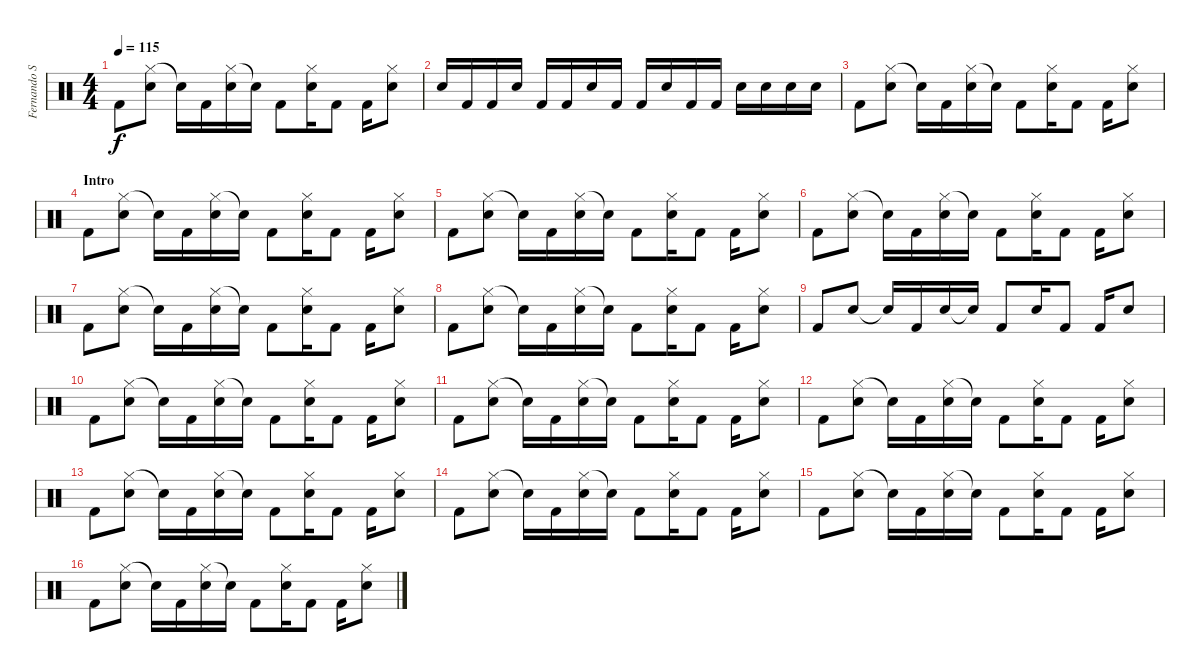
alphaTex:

\track ("Fernando Scarcella" "Fernando S") {instrument percussion}
\staff {score}
\articulation defaults
\ts (4 4)
\tempo 115
\clef neutral
\ks c "Kick (hit) 2".8{dy f}
("Hi-Hat (closed)" "Snare (hit) 2").8 "Snare (hit)"{t}.16 "Kick (hit) 2".16 ("Hi-Hat (closed)" "Snare (hit) 2").16 "Snare (hit)"{t}.16 "Kick (hit) 2".8 ("Hi-Hat (closed)" "Snare (hit) 2").16 "Kick (hit) 2".8 "Kick (hit) 2".16 ("Hi-Hat (closed)" "Snare (hit) 2").8 |
"Snare (hit) 2".16 "Kick (hit) 2".16 "Kick (hit) 2".16 "Snare (hit) 2".16 "Kick (hit) 2".16 "Kick (hit) 2".16 "Snare (hit) 2".16 "Kick (hit) 2".16 "Kick (hit) 2".16 "Snare (hit) 2".16 "Kick (hit) 2".16 "Kick (hit) 2".16 "Snare (hit) 2".16 "Snare (hit) 2".16 "Snare (hit) 2".16 "Snare (hit) 2".16 |
"Kick (hit) 2".8 ("Hi-Hat (closed)" "Snare (hit) 2").8 "Snare (hit)"{t}.16 "Kick (hit) 2".16 ("Hi-Hat (closed)" "Snare (hit) 2").16 "Snare (hit)"{t}.16 "Kick (hit) 2".8 ("Hi-Hat (closed)" "Snare (hit) 2").16 "Kick (hit) 2".8 "Kick (hit) 2".16 ("Hi-Hat (closed)" "Snare (hit) 2").8 |
\section ("" "Intro")
"Kick (hit) 2".8 ("Hi-Hat (closed)" "Snare (hit) 2").8 "Snare (hit)"{t}.16 "Kick (hit) 2".16 ("Hi-Hat (closed)" "Snare (hit) 2").16 "Snare (hit)"{t}.16 "Kick (hit) 2".8 ("Hi-Hat (closed)" "Snare (hit) 2").16 "Kick (hit) 2".8 "Kick (hit) 2".16 ("Hi-Hat (closed)" "Snare (hit) 2").8 |
"Kick (hit) 2".8 ("Hi-Hat (closed)" "Snare (hit) 2").8 "Snare (hit)"{t}.16 "Kick (hit) 2".16 ("Hi-Hat (closed)" "Snare (hit) 2").16 "Snare (hit)"{t}.16 "Kick (hit) 2".8 ("Hi-Hat (closed)" "Snare (hit) 2").16 "Kick (hit) 2".8 "Kick (hit) 2".16 ("Hi-Hat (closed)" "Snare (hit) 2").8 |
"Kick (hit) 2".8 ("Hi-Hat (closed)" "Snare (hit) 2").8 "Snare (hit)"{t}.16 "Kick (hit) 2".16 ("Hi-Hat (closed)" "Snare (hit) 2").16 "Snare (hit)"{t}.16 "Kick (hit) 2".8 ("Hi-Hat (closed)" "Snare (hit) 2").16 "Kick (hit) 2".8 "Kick (hit) 2".16 ("Hi-Hat (closed)" "Snare (hit) 2").8 |
"Kick (hit) 2".8 ("Hi-Hat (closed)" "Snare (hit) 2").8 "Snare (hit)"{t}.16 "Kick (hit) 2".16 ("Hi-Hat (closed)" "Snare (hit) 2").16 "Snare (hit)"{t}.16 "Kick (hit) 2".8 ("Hi-Hat (closed)" "Snare (hit) 2").16 "Kick (hit) 2".8 "Kick (hit) 2".16 ("Hi-Hat (closed)" "Snare (hit) 2").8 |
"Kick (hit) 2".8 ("Hi-Hat (closed)" "Snare (hit) 2").8 "Snare (hit)"{t}.16 "Kick (hit) 2".16 ("Hi-Hat (closed)" "Snare (hit) 2").16 "Snare (hit)"{t}.16 "Kick (hit) 2".8 ("Hi-Hat (closed)" "Snare (hit) 2").16 "Kick (hit) 2".8 "Kick (hit) 2".16 ("Hi-Hat (closed)" "Snare (hit) 2").8 |
"Kick (hit) 2".8 "Snare (hit) 2".8 "Snare (hit)"{t}.16 "Kick (hit) 2".16 "Snare (hit) 2".16 "Snare (hit)"{t}.16 "Kick (hit) 2".8 "Snare (hit) 2".16 "Kick (hit) 2".8 "Kick (hit) 2".16 "Snare (hit) 2".8 |
"Kick (hit) 2".8 ("Hi-Hat (closed)" "Snare (hit) 2").8 "Snare (hit)"{t}.16 "Kick (hit) 2".16 ("Hi-Hat (closed)" "Snare (hit) 2").16 "Snare (hit)"{t}.16 "Kick (hit) 2".8 ("Hi-Hat (closed)" "Snare (hit) 2").16 "Kick (hit) 2".8 "Kick (hit) 2".16 ("Hi-Hat (closed)" "Snare (hit) 2").8 |
"Kick (hit) 2".8 ("Hi-Hat (closed)" "Snare (hit) 2").8 "Snare (hit)"{t}.16 "Kick (hit) 2".16 ("Hi-Hat (closed)" "Snare (hit) 2").16 "Snare (hit)"{t}.16 "Kick (hit) 2".8 ("Hi-Hat (closed)" "Snare (hit) 2").16 "Kick (hit) 2".8 "Kick (hit) 2".16 ("Hi-Hat (closed)" "Snare (hit) 2").8 |
"Kick (hit) 2".8 ("Hi-Hat (closed)" "Snare (hit) 2").8 "Snare (hit)"{t}.16 "Kick (hit) 2".16 ("Hi-Hat (closed)" "Snare (hit) 2").16 "Snare (hit)"{t}.16 "Kick (hit) 2".8 ("Hi-Hat (closed)" "Snare (hit) 2").16 "Kick (hit) 2".8 "Kick (hit) 2".16 ("Hi-Hat (closed)" "Snare (hit) 2").8 |
"Kick (hit) 2".8 ("Hi-Hat (closed)" "Snare (hit) 2").8 "Snare (hit)"{t}.16 "Kick (hit) 2".16 ("Hi-Hat (closed)" "Snare (hit) 2").16 "Snare (hit)"{t}.16 "Kick (hit) 2".8 ("Hi-Hat (closed)" "Snare (hit) 2").16 "Kick (hit) 2".8 "Kick (hit) 2".16 ("Hi-Hat (closed)" "Snare (hit) 2").8 |
"Kick (hit) 2".8 ("Hi-Hat (closed)" "Snare (hit) 2").8 "Snare (hit)"{t}.16 "Kick (hit) 2".16 ("Hi-Hat (closed)" "Snare (hit) 2").16 "Snare (hit)"{t}.16 "Kick (hit) 2".8 ("Hi-Hat (closed)" "Snare (hit) 2").16 "Kick (hit) 2".8 "Kick (hit) 2".16 ("Hi-Hat (closed)" "Snare (hit) 2").8 |
"Kick (hit) 2".8 ("Hi-Hat (closed)" "Snare (hit) 2").8 "Snare (hit)"{t}.16 "Kick (hit) 2".16 ("Hi-Hat (closed)" "Snare (hit) 2").16 "Snare (hit)"{t}.16 "Kick (hit) 2".8 ("Hi-Hat (closed)" "Snare (hit) 2").16 "Kick (hit) 2".8 "Kick (hit) 2".16 ("Hi-Hat (closed)" "Snare (hit) 2").8 |
"Kick (hit) 2".8 ("Hi-Hat (closed)" "Snare (hit) 2").8 "Snare (hit)"{t}.16 "Kick (hit) 2".16 ("Hi-Hat (closed)" "Snare (hit) 2").16 "Snare (hit)"{t}.16 "Kick (hit) 2".8 ("Hi-Hat (closed)" "Snare (hit) 2").16 "Kick (hit) 2".8 "Kick (hit) 2".16 ("Hi-Hat (closed)" "Snare (hit) 2").8
